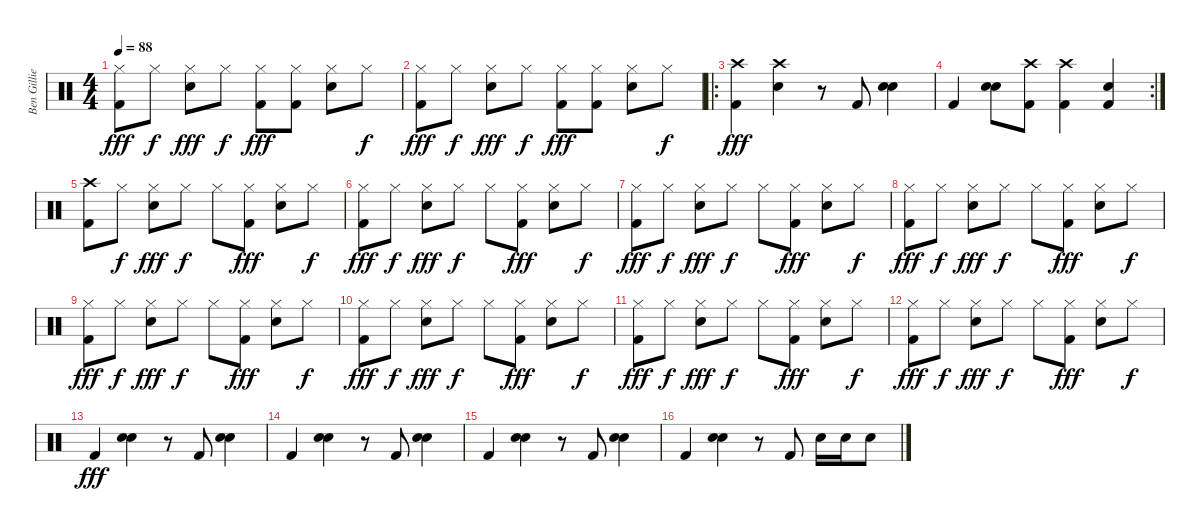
\track ("Ben Gillies (Drums)" "Ben Gillie") {instrument percussion}
\staff {score}
\articulation defaults
\ts (4 4)
\tempo 88
\clef neutral
\ks c
("Hi-Hat (closed)" "Kick (hit) 2").8{dy fff} "Hi-Hat (closed)".8{dy f} ("Hi-Hat (closed)" "Electric Snare (hit)").8{dy fff} "Hi-Hat (closed)".8{dy f} ("Hi-Hat (closed)" "Kick (hit) 2").8{dy fff} ("Hi-Hat (closed)" "Kick (hit) 2").8 ("Hi-Hat (closed)" "Electric Snare (hit)").8 "Hi-Hat (closed)".8{dy f} |
("Hi-Hat (closed)" "Kick (hit) 2").8{dy fff} "Hi-Hat (closed)".8{dy f} ("Hi-Hat (closed)" "Electric Snare (hit)").8{dy fff} "Hi-Hat (closed)".8{dy f} ("Hi-Hat (closed)" "Kick (hit) 2").8{dy fff} ("Hi-Hat (closed)" "Kick (hit) 2").8 ("Hi-Hat (closed)" "Electric Snare (hit)").8 "Hi-Hat (closed)".8{dy f} |
\ro
("Crash high (hit)" "Kick (hit) 2").4{dy fff} ("Crash high (hit)" "Electric Snare (hit)").4 r.8 "Kick (hit) 2".8 ("Electric Snare (hit)" "Electric Snare (hit)").4 |
\rc 2 "Kick (hit) 2".4
("Electric Snare (hit)" "Electric Snare (hit)").8 ("Crash high (hit)" "Kick (hit) 2").8 ("Crash high (hit)" "Kick (hit) 2").4 ("Electric Snare (hit)" "Kick (hit) 2").4 |
("Crash high (hit)" "Kick (hit) 2").8 "Hi-Hat (closed)".8{dy f} ("Hi-Hat (closed)" "Electric Snare (hit)").8{dy fff} "Hi-Hat (closed)".8{dy f} "Hi-Hat (closed)".8 ("Hi-Hat (closed)" "Kick (hit) 2").8{dy fff} ("Hi-Hat (closed)" "Electric Snare (hit)").8 "Hi-Hat (closed)".8{dy f} |
("Hi-Hat (closed)" "Kick (hit) 2").8{dy fff} "Hi-Hat (closed)".8{dy f} ("Hi-Hat (closed)" "Electric Snare (hit)").8{dy fff} "Hi-Hat (closed)".8{dy f} "Hi-Hat (closed)".8 ("Hi-Hat (closed)" "Kick (hit) 2").8{dy fff} ("Hi-Hat (closed)" "Electric Snare (hit)").8 "Hi-Hat (closed)".8{dy f} |
("Hi-Hat (closed)" "Kick (hit) 2").8{dy fff} "Hi-Hat (closed)".8{dy f} ("Hi-Hat (closed)" "Electric Snare (hit)").8{dy fff} "Hi-Hat (closed)".8{dy f} "Hi-Hat (closed)".8 ("Hi-Hat (closed)" "Kick (hit) 2").8{dy fff} ("Hi-Hat (closed)" "Electric Snare (hit)").8 "Hi-Hat (closed)".8{dy f} |
("Hi-Hat (closed)" "Kick (hit) 2").8{dy fff} "Hi-Hat (closed)".8{dy f} ("Hi-Hat (closed)" "Electric Snare (hit)").8{dy fff} "Hi-Hat (closed)".8{dy f} "Hi-Hat (closed)".8 ("Hi-Hat (closed)" "Kick (hit) 2").8{dy fff} ("Hi-Hat (closed)" "Electric Snare (hit)").8 "Hi-Hat (closed)".8{dy f} |
("Hi-Hat (closed)" "Kick (hit) 2").8{dy fff} "Hi-Hat (closed)".8{dy f} ("Hi-Hat (closed)" "Electric Snare (hit)").8{dy fff} "Hi-Hat (closed)".8{dy f} "Hi-Hat (closed)".8 ("Hi-Hat (closed)" "Kick (hit) 2").8{dy fff} ("Hi-Hat (closed)" "Electric Snare (hit)").8 "Hi-Hat (closed)".8{dy f} |
("Hi-Hat (closed)" "Kick (hit) 2").8{dy fff} "Hi-Hat (closed)".8{dy f} ("Hi-Hat (closed)" "Electric Snare (hit)").8{dy fff} "Hi-Hat (closed)".8{dy f} "Hi-Hat (closed)".8 ("Hi-Hat (closed)" "Kick (hit) 2").8{dy fff} ("Hi-Hat (closed)" "Electric Snare (hit)").8 "Hi-Hat (closed)".8{dy f} |
("Hi-Hat (closed)" "Kick (hit) 2").8{dy fff} "Hi-Hat (closed)".8{dy f} ("Hi-Hat (closed)" "Electric Snare (hit)").8{dy fff} "Hi-Hat (closed)".8{dy f} "Hi-Hat (closed)".8 ("Hi-Hat (closed)" "Kick (hit) 2").8{dy fff} ("Hi-Hat (closed)" "Electric Snare (hit)").8 "Hi-Hat (closed)".8{dy f} |
("Hi-Hat (closed)" "Kick (hit) 2").8{dy fff} "Hi-Hat (closed)".8{dy f} ("Hi-Hat (closed)" "Electric Snare (hit)").8{dy fff} "Hi-Hat (closed)".8{dy f} "Hi-Hat (closed)".8 ("Hi-Hat (closed)" "Kick (hit) 2").8{dy fff} ("Hi-Hat (closed)" "Electric Snare (hit)").8 "Hi-Hat (closed)".8{dy f} |
"Kick (hit) 2".4{dy fff} ("Electric Snare (hit)" "Electric Snare (hit)").4 r.8 "Kick (hit) 2".8 ("Electric Snare (hit)" "Electric Snare (hit)").4 |
"Kick (hit) 2".4 ("Electric Snare (hit)" "Electric Snare (hit)").4 r.8 "Kick (hit) 2".8 ("Electric Snare (hit)" "Electric Snare (hit)").4 |
"Kick (hit) 2".4 ("Electric Snare (hit)" "Electric Snare (hit)").4 r.8 "Kick (hit) 2".8 ("Electric Snare (hit)" "Electric Snare (hit)").4 |
"Kick (hit) 2".4 ("Electric Snare (hit)" "Electric Snare (hit)").4 r.8 "Kick (hit) 2".8 "Electric Snare (hit)".16 "Electric Snare (hit)".16 "Electric Snare (hit)".8
